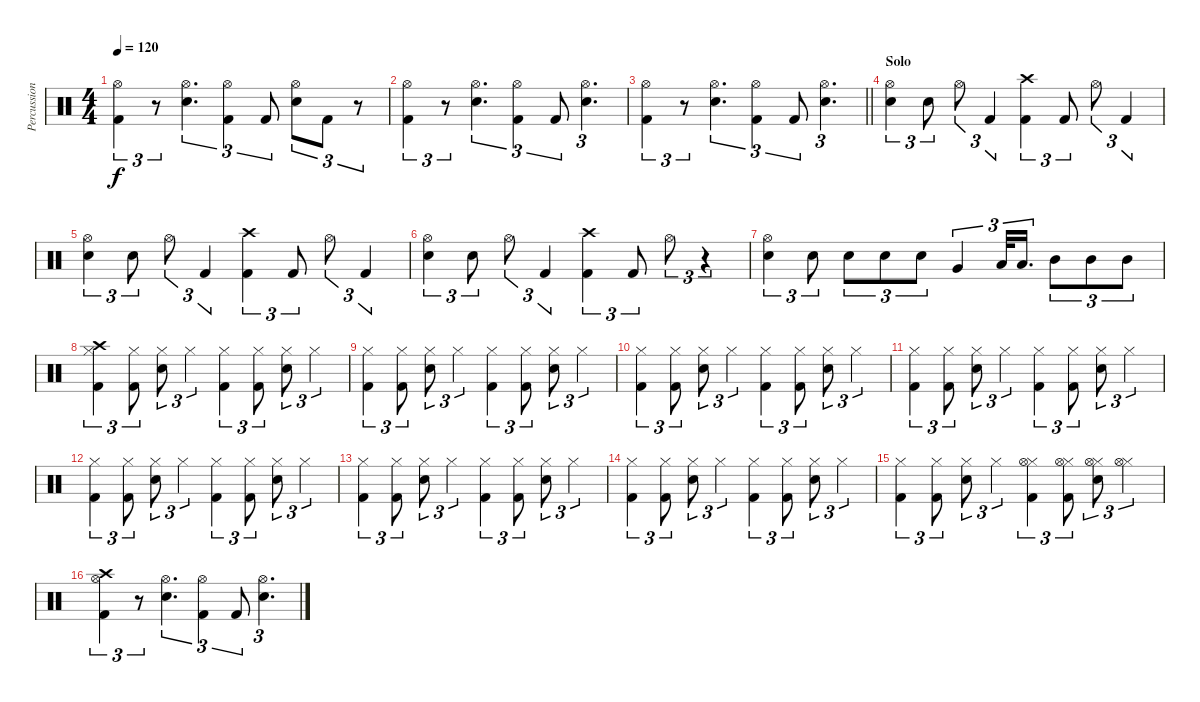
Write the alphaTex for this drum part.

\track ("Percussion" "Percussion") {instrument percussion}
\staff {score}
\articulation defaults
\ts (4 4)
\tempo 120
\clef neutral
\ks c
("Hi-Hat (open)" "Kick (hit) 2").4{tu (3 2) dy f} r.8{tu (3 2)} ("Hi-Hat (open)" "Electric Snare (hit)").4{d tu (3 2)} ("Hi-Hat (open)" "Kick (hit) 2").4{tu (3 2)} "Kick (hit) 2".8{tu (3 2)} ("Hi-Hat (open)" "Electric Snare (hit)").8{tu (3 2)} "Kick (hit) 2".8{tu (3 2)} r.8{tu (3 2)} |
("Hi-Hat (open)" "Kick (hit) 2").4{tu (3 2)} r.8{tu (3 2)} ("Hi-Hat (open)" "Electric Snare (hit)").4{d tu (3 2)} ("Hi-Hat (open)" "Kick (hit) 2").4{tu (3 2)} "Kick (hit) 2".8{tu (3 2)} ("Hi-Hat (open)" "Electric Snare (hit)").4{d tu (3 2)} |
\barLineRight lightlight
("Hi-Hat (open)" "Kick (hit) 2").4{tu (3 2)} r.8{tu (3 2)} ("Hi-Hat (open)" "Electric Snare (hit)").4{d tu (3 2)} ("Hi-Hat (open)" "Kick (hit) 2").4{tu (3 2)} "Kick (hit) 2".8{tu (3 2)} ("Hi-Hat (open)" "Electric Snare (hit)").4{d tu (3 2)} |
\section ("" "Solo")
("Hi-Hat (open)" "Electric Snare (hit)").4{tu (3 2)} "Electric Snare (hit)".8{tu (3 2)} "Hi-Hat (open)".8{tu (3 2)} "Kick (hit) 2".4{tu (3 2)} ("Crash high (hit)" "Kick (hit) 2").4{tu (3 2)} "Kick (hit) 2".8{tu (3 2)} "Hi-Hat (open)".8{tu (3 2)} "Kick (hit) 2".4{tu (3 2)} |
("Hi-Hat (open)" "Electric Snare (hit)").4{tu (3 2)} "Electric Snare (hit)".8{tu (3 2)} "Hi-Hat (open)".8{tu (3 2)} "Kick (hit) 2".4{tu (3 2)} ("Crash high (hit)" "Kick (hit) 2").4{tu (3 2)} "Kick (hit) 2".8{tu (3 2)} "Hi-Hat (open)".8{tu (3 2)} "Kick (hit) 2".4{tu (3 2)} |
("Hi-Hat (open)" "Electric Snare (hit)").4{tu (3 2)} "Electric Snare (hit)".8{tu (3 2)} "Hi-Hat (open)".8{tu (3 2)} "Kick (hit) 2".4{tu (3 2)} ("Crash high (hit)" "Kick (hit) 2").4{tu (3 2)} "Kick (hit) 2".8{tu (3 2)} "Hi-Hat (open)".8{tu (3 2)} r.4{tu (3 2)} |
("Hi-Hat (open)" "Electric Snare (hit)").4{tu (3 2)} "Electric Snare (hit)".8{tu (3 2)} "Electric Snare (hit)".8{tu (3 2)} "Electric Snare (hit)".8{tu (3 2)} "Electric Snare (hit)".8{tu (3 2)} "Very Low Tom (hit)".4{tu (3 2)} "Low Tom (hit)".32{tu (3 2)} "Low Tom (hit)".16{d tu (3 2)} "Mid Tom (hit)".8{tu (3 2)} "Mid Tom (hit)".8{tu (3 2)} "Mid Tom (hit)".8{tu (3 2)} |
("Hi-Hat (closed)" "Crash high (hit)" "Kick (hit) 2").4{tu (3 2)} ("Hi-Hat (closed)" "Kick (hit) 2").8{tu (3 2)} ("Hi-Hat (closed)" "Electric Snare (hit)").8{tu (3 2)} "Hi-Hat (closed)".4{tu (3 2)} ("Hi-Hat (closed)" "Kick (hit) 2").4{tu (3 2)} ("Hi-Hat (closed)" "Kick (hit) 2").8{tu (3 2)} ("Hi-Hat (closed)" "Electric Snare (hit)").8{tu (3 2)} "Hi-Hat (closed)".4{tu (3 2)} |
("Hi-Hat (closed)" "Kick (hit) 2").4{tu (3 2)} ("Hi-Hat (closed)" "Kick (hit) 2").8{tu (3 2)} ("Hi-Hat (closed)" "Electric Snare (hit)").8{tu (3 2)} "Hi-Hat (closed)".4{tu (3 2)} ("Hi-Hat (closed)" "Kick (hit) 2").4{tu (3 2)} ("Hi-Hat (closed)" "Kick (hit) 2").8{tu (3 2)} ("Hi-Hat (closed)" "Electric Snare (hit)").8{tu (3 2)} "Hi-Hat (closed)".4{tu (3 2)} |
("Hi-Hat (closed)" "Kick (hit) 2").4{tu (3 2)} ("Hi-Hat (closed)" "Kick (hit) 2").8{tu (3 2)} ("Hi-Hat (closed)" "Electric Snare (hit)").8{tu (3 2)} "Hi-Hat (closed)".4{tu (3 2)} ("Hi-Hat (closed)" "Kick (hit) 2").4{tu (3 2)} ("Hi-Hat (closed)" "Kick (hit) 2").8{tu (3 2)} ("Hi-Hat (closed)" "Electric Snare (hit)").8{tu (3 2)} "Hi-Hat (closed)".4{tu (3 2)} |
("Hi-Hat (closed)" "Kick (hit) 2").4{tu (3 2)} ("Hi-Hat (closed)" "Kick (hit) 2").8{tu (3 2)} ("Hi-Hat (closed)" "Electric Snare (hit)").8{tu (3 2)} "Hi-Hat (closed)".4{tu (3 2)} ("Hi-Hat (closed)" "Kick (hit) 2").4{tu (3 2)} ("Hi-Hat (closed)" "Kick (hit) 2").8{tu (3 2)} ("Hi-Hat (closed)" "Electric Snare (hit)").8{tu (3 2)} "Hi-Hat (closed)".4{tu (3 2)} |
("Hi-Hat (closed)" "Kick (hit) 2").4{tu (3 2)} ("Hi-Hat (closed)" "Kick (hit) 2").8{tu (3 2)} ("Hi-Hat (closed)" "Electric Snare (hit)").8{tu (3 2)} "Hi-Hat (closed)".4{tu (3 2)} ("Hi-Hat (closed)" "Kick (hit) 2").4{tu (3 2)} ("Hi-Hat (closed)" "Kick (hit) 2").8{tu (3 2)} ("Hi-Hat (closed)" "Electric Snare (hit)").8{tu (3 2)} "Hi-Hat (closed)".4{tu (3 2)} |
("Hi-Hat (closed)" "Kick (hit) 2").4{tu (3 2)} ("Hi-Hat (closed)" "Kick (hit) 2").8{tu (3 2)} ("Hi-Hat (closed)" "Electric Snare (hit)").8{tu (3 2)} "Hi-Hat (closed)".4{tu (3 2)} ("Hi-Hat (closed)" "Kick (hit) 2").4{tu (3 2)} ("Hi-Hat (closed)" "Kick (hit) 2").8{tu (3 2)} ("Hi-Hat (closed)" "Electric Snare (hit)").8{tu (3 2)} "Hi-Hat (closed)".4{tu (3 2)} |
("Hi-Hat (closed)" "Kick (hit) 2").4{tu (3 2)} ("Hi-Hat (closed)" "Kick (hit) 2").8{tu (3 2)} ("Hi-Hat (closed)" "Electric Snare (hit)").8{tu (3 2)} "Hi-Hat (closed)".4{tu (3 2)} ("Hi-Hat (closed)" "Kick (hit) 2").4{tu (3 2)} ("Hi-Hat (closed)" "Kick (hit) 2").8{tu (3 2)} ("Hi-Hat (closed)" "Electric Snare (hit)").8{tu (3 2)} "Hi-Hat (closed)".4{tu (3 2)} |
("Hi-Hat (closed)" "Kick (hit) 2").4{tu (3 2)} ("Hi-Hat (closed)" "Kick (hit) 2").8{tu (3 2)} ("Hi-Hat (closed)" "Electric Snare (hit)").8{tu (3 2)} "Hi-Hat (closed)".4{tu (3 2)} ("Hi-Hat (closed)" "Hi-Hat (open)" "Kick (hit) 2").4{tu (3 2)} ("Hi-Hat (closed)" "Hi-Hat (open)" "Kick (hit) 2").8{tu (3 2)} ("Hi-Hat (closed)" "Hi-Hat (open)" "Electric Snare (hit)").8{tu (3 2)} ("Hi-Hat (closed)" "Hi-Hat (open)").4{tu (3 2)} |
("Crash high (hit)" "Hi-Hat (open)" "Kick (hit) 2").4{tu (3 2)} r.8{tu (3 2)} ("Hi-Hat (open)" "Electric Snare (hit)").4{d tu (3 2)} ("Hi-Hat (open)" "Kick (hit) 2").4{tu (3 2)} "Kick (hit) 2".8{tu (3 2)} ("Hi-Hat (open)" "Electric Snare (hit)").4{d tu (3 2)}
